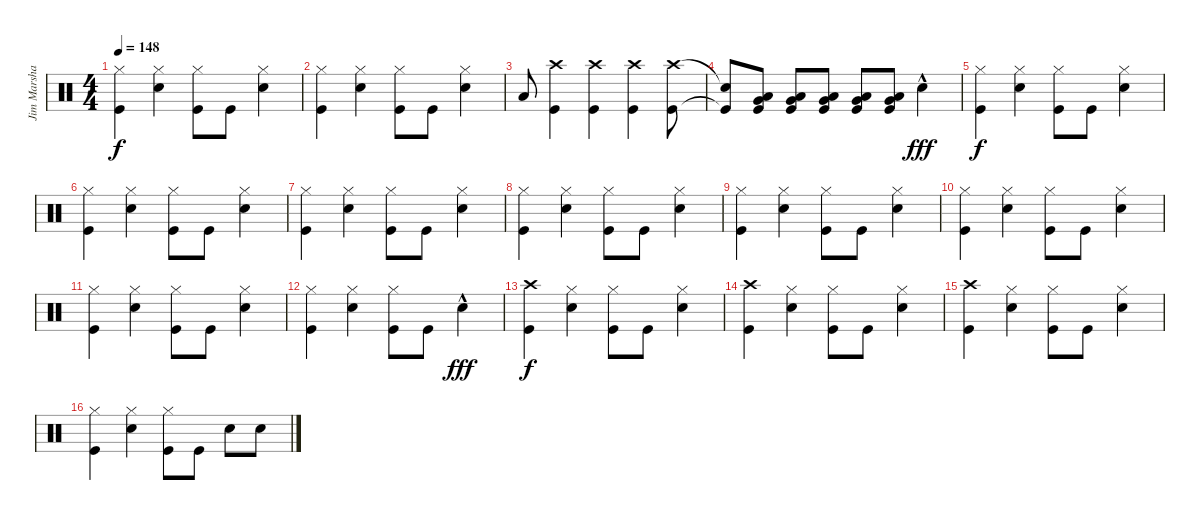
\track ("Jim Marshall Drums" "Jim Marsha") {instrument percussion}
\staff {score}
\articulation defaults
\ts (4 4)
\tempo 148
\clef neutral
\ks c
("Hi-Hat (closed)" "Kick (hit)").4{dy f} ("Hi-Hat (closed)" "Snare (hit) 2").4 ("Hi-Hat (closed)" "Kick (hit)").8 "Kick (hit)".8 ("Hi-Hat (closed)" "Snare (hit) 2").4 |
("Hi-Hat (closed)" "Kick (hit)").4 ("Hi-Hat (closed)" "Snare (hit) 2").4 ("Hi-Hat (closed)" "Kick (hit)").8 "Kick (hit)".8 ("Hi-Hat (closed)" "Snare (hit) 2").4 |
"Low Tom (hit)".8 ("Crash high (hit)" "Kick (hit)").4 ("Crash high (hit)" "Kick (hit)").4 ("Crash high (hit)" "Kick (hit)").4 ("Crash high (hit)" "Kick (hit)").8 |
("Snare (hit)"{t} "Kick (hit)"{t}).8 ("Very Low Tom (hit)" "Low Floor Tom (hit)" "Kick (hit)").8 ("Very Low Tom (hit)" "Low Floor Tom (hit)" "Kick (hit)").8 ("Very Low Tom (hit)" "Low Floor Tom (hit)" "Kick (hit)").8 ("Very Low Tom (hit)" "Low Floor Tom (hit)" "Kick (hit)").8 ("Very Low Tom (hit)" "Low Floor Tom (hit)" "Kick (hit)").8 "Snare (hit) 2"{hac}.4{dy fff} |
("Hi-Hat (closed)" "Kick (hit)").4{dy f} ("Hi-Hat (closed)" "Snare (hit) 2").4 ("Hi-Hat (closed)" "Kick (hit)").8 "Kick (hit)".8 ("Hi-Hat (closed)" "Snare (hit) 2").4 |
("Hi-Hat (closed)" "Kick (hit)").4 ("Hi-Hat (closed)" "Snare (hit) 2").4 ("Hi-Hat (closed)" "Kick (hit)").8 "Kick (hit)".8 ("Hi-Hat (closed)" "Snare (hit) 2").4 |
("Hi-Hat (closed)" "Kick (hit)").4 ("Hi-Hat (closed)" "Snare (hit) 2").4 ("Hi-Hat (closed)" "Kick (hit)").8 "Kick (hit)".8 ("Hi-Hat (closed)" "Snare (hit) 2").4 |
("Hi-Hat (closed)" "Kick (hit)").4 ("Hi-Hat (closed)" "Snare (hit) 2").4 ("Hi-Hat (closed)" "Kick (hit)").8 "Kick (hit)".8 ("Hi-Hat (closed)" "Snare (hit) 2").4 |
("Hi-Hat (closed)" "Kick (hit)").4 ("Hi-Hat (closed)" "Snare (hit) 2").4 ("Hi-Hat (closed)" "Kick (hit)").8 "Kick (hit)".8 ("Hi-Hat (closed)" "Snare (hit) 2").4 |
("Hi-Hat (closed)" "Kick (hit)").4 ("Hi-Hat (closed)" "Snare (hit) 2").4 ("Hi-Hat (closed)" "Kick (hit)").8 "Kick (hit)".8 ("Hi-Hat (closed)" "Snare (hit) 2").4 |
("Hi-Hat (closed)" "Kick (hit)").4 ("Hi-Hat (closed)" "Snare (hit) 2").4 ("Hi-Hat (closed)" "Kick (hit)").8 "Kick (hit)".8 ("Hi-Hat (closed)" "Snare (hit) 2").4 |
("Hi-Hat (closed)" "Kick (hit)").4 ("Hi-Hat (closed)" "Snare (hit) 2").4 ("Hi-Hat (closed)" "Kick (hit)").8 "Kick (hit)".8 "Snare (hit) 2"{hac}.4{dy fff} |
("Crash high (hit)" "Kick (hit)").4{dy f} ("Hi-Hat (closed)" "Snare (hit) 2").4 ("Hi-Hat (closed)" "Kick (hit)").8 "Kick (hit)".8 ("Hi-Hat (closed)" "Snare (hit) 2").4 |
("Crash high (hit)" "Kick (hit)").4 ("Hi-Hat (closed)" "Snare (hit) 2").4 ("Hi-Hat (closed)" "Kick (hit)").8 "Kick (hit)".8 ("Hi-Hat (closed)" "Snare (hit) 2").4 |
("Crash high (hit)" "Kick (hit)").4 ("Hi-Hat (closed)" "Snare (hit) 2").4 ("Hi-Hat (closed)" "Kick (hit)").8 "Kick (hit)".8 ("Hi-Hat (closed)" "Snare (hit) 2").4 |
("Hi-Hat (closed)" "Kick (hit)").4 ("Hi-Hat (closed)" "Snare (hit) 2").4 ("Hi-Hat (closed)" "Kick (hit)").8 "Kick (hit)".8 "Snare (hit) 2".8 "Snare (hit) 2".8
